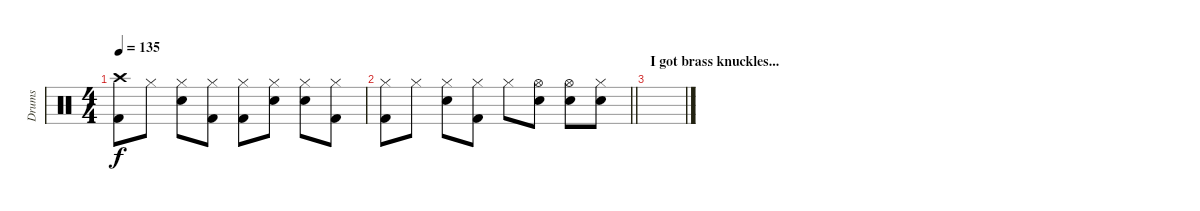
\track ("Drums" "Drums") {instrument percussion}
\staff {score}
\articulation defaults
\ts (4 4)
\tempo 135
\clef neutral
\ks c
("Crash high (hit)" "Kick (hit) 2").8{dy f} "Hi-Hat (closed)".8 ("Hi-Hat (closed)" "Electric Snare (hit)").8 ("Hi-Hat (closed)" "Kick (hit) 2").8 ("Hi-Hat (closed)" "Kick (hit) 2").8 ("Hi-Hat (closed)" "Electric Snare (hit)").8 ("Hi-Hat (closed)" "Electric Snare (hit)").8 ("Hi-Hat (closed)" "Kick (hit) 2").8 |
\barLineRight lightlight
("Hi-Hat (closed)" "Kick (hit) 2").8{volume 13} "Hi-Hat (closed)".8 ("Hi-Hat (closed)" "Electric Snare (hit)").8 ("Hi-Hat (closed)" "Kick (hit) 2").8 "Hi-Hat (closed)".8 ("Hi-Hat (open)" "Electric Snare (hit)").8 ("Hi-Hat (open)" "Electric Snare (hit)").8 ("Hi-Hat (closed)" "Electric Snare (hit)").8 |
\section ("" "I got brass knuckles...")
